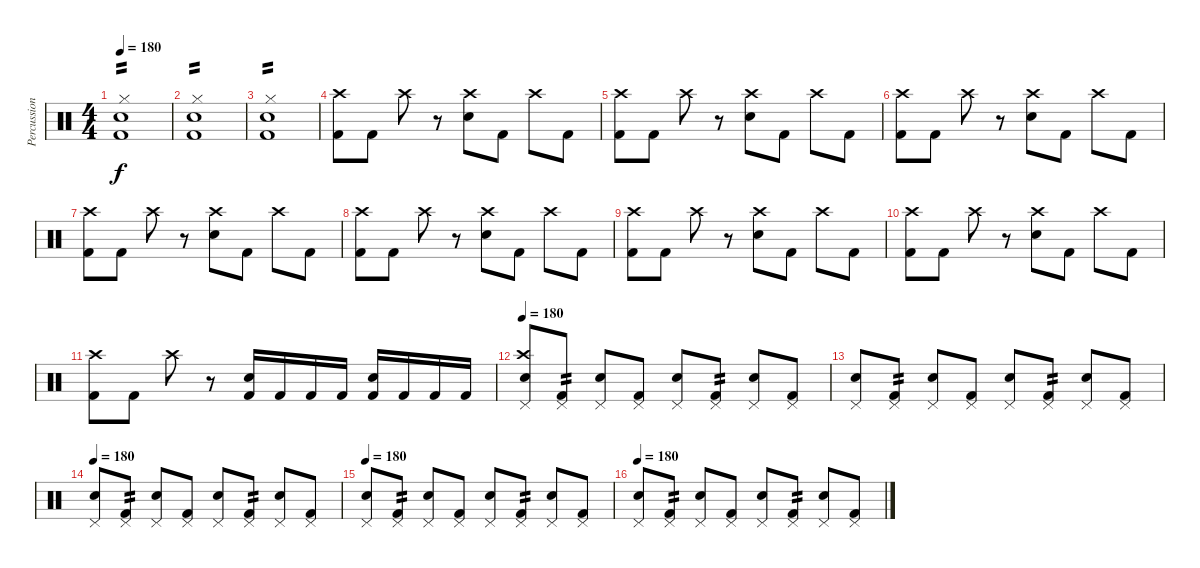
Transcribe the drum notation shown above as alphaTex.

\track ("Percussion" "Percussion") {instrument percussion}
\staff {score}
\articulation defaults
\ts (4 4)
\tempo 180
\clef neutral
\ks c
("Electric Snare (hit)" "Hi-Hat (closed)" "Kick (hit) 2").1{tp 2 dy f} |
("Electric Snare (hit)" "Hi-Hat (closed)" "Kick (hit) 2").1{tp 2} |
("Electric Snare (hit)" "Hi-Hat (closed)" "Kick (hit) 2").1{tp 2} |
("Crash high (hit)" "Kick (hit) 2").8 "Kick (hit) 2".8 "Crash high (hit)".8 r.8 ("Crash high (hit)" "Electric Snare (hit)").8 "Kick (hit) 2".8 "Crash high (hit)".8 "Kick (hit) 2".8 |
("Crash high (hit)" "Kick (hit) 2").8 "Kick (hit) 2".8 "Crash high (hit)".8 r.8 ("Crash high (hit)" "Electric Snare (hit)").8 "Kick (hit) 2".8 "Crash high (hit)".8 "Kick (hit) 2".8 |
("Crash high (hit)" "Kick (hit) 2").8 "Kick (hit) 2".8 "Crash high (hit)".8 r.8 ("Crash high (hit)" "Electric Snare (hit)").8 "Kick (hit) 2".8 "Crash high (hit)".8 "Kick (hit) 2".8 |
("Crash high (hit)" "Kick (hit) 2").8 "Kick (hit) 2".8 "Crash high (hit)".8 r.8 ("Crash high (hit)" "Electric Snare (hit)").8 "Kick (hit) 2".8 "Crash high (hit)".8 "Kick (hit) 2".8 |
("Crash high (hit)" "Kick (hit) 2").8 "Kick (hit) 2".8 "Crash high (hit)".8 r.8 ("Crash high (hit)" "Electric Snare (hit)").8 "Kick (hit) 2".8 "Crash high (hit)".8 "Kick (hit) 2".8 |
("Crash high (hit)" "Kick (hit) 2").8 "Kick (hit) 2".8 "Crash high (hit)".8 r.8 ("Crash high (hit)" "Electric Snare (hit)").8 "Kick (hit) 2".8 "Crash high (hit)".8 "Kick (hit) 2".8 |
("Crash high (hit)" "Kick (hit) 2").8 "Kick (hit) 2".8 "Crash high (hit)".8 r.8 ("Crash high (hit)" "Electric Snare (hit)").8 "Kick (hit) 2".8 "Crash high (hit)".8 "Kick (hit) 2".8 |
("Crash high (hit)" "Kick (hit) 2").8 "Kick (hit) 2".8 "Crash high (hit)".8 r.8 ("Electric Snare (hit)" "Kick (hit) 2").16 "Kick (hit) 2".16 "Kick (hit) 2".16 "Kick (hit) 2".16 ("Electric Snare (hit)" "Kick (hit) 2").16 "Kick (hit) 2".16 "Kick (hit) 2".16 "Kick (hit) 2".16 |
\tempo 180
("Pedal Hi-Hat (hit)" "Crash high (hit)" "Electric Snare (hit)").8 ("Pedal Hi-Hat (hit)" "Kick (hit) 2").8{tp 2} ("Pedal Hi-Hat (hit)" "Electric Snare (hit)").8 ("Pedal Hi-Hat (hit)" "Kick (hit) 2").8 ("Pedal Hi-Hat (hit)" "Electric Snare (hit)").8 ("Pedal Hi-Hat (hit)" "Kick (hit) 2").8{tp 2} ("Pedal Hi-Hat (hit)" "Electric Snare (hit)").8 ("Pedal Hi-Hat (hit)" "Kick (hit) 2").8 |
("Pedal Hi-Hat (hit)" "Electric Snare (hit)").8 ("Pedal Hi-Hat (hit)" "Kick (hit) 2").8{tp 2} ("Pedal Hi-Hat (hit)" "Electric Snare (hit)").8 ("Pedal Hi-Hat (hit)" "Kick (hit) 2").8 ("Pedal Hi-Hat (hit)" "Electric Snare (hit)").8 ("Pedal Hi-Hat (hit)" "Kick (hit) 2").8{tp 2} ("Pedal Hi-Hat (hit)" "Electric Snare (hit)").8 ("Pedal Hi-Hat (hit)" "Kick (hit) 2").8 |
\tempo 180
("Pedal Hi-Hat (hit)" "Electric Snare (hit)").8 ("Pedal Hi-Hat (hit)" "Kick (hit) 2").8{tp 2} ("Pedal Hi-Hat (hit)" "Electric Snare (hit)").8 ("Pedal Hi-Hat (hit)" "Kick (hit) 2").8 ("Pedal Hi-Hat (hit)" "Electric Snare (hit)").8 ("Pedal Hi-Hat (hit)" "Kick (hit) 2").8{tp 2} ("Pedal Hi-Hat (hit)" "Electric Snare (hit)").8 ("Pedal Hi-Hat (hit)" "Kick (hit) 2").8 |
\tempo 180
("Pedal Hi-Hat (hit)" "Electric Snare (hit)").8 ("Pedal Hi-Hat (hit)" "Kick (hit) 2").8{tp 2} ("Pedal Hi-Hat (hit)" "Electric Snare (hit)").8 ("Pedal Hi-Hat (hit)" "Kick (hit) 2").8 ("Pedal Hi-Hat (hit)" "Electric Snare (hit)").8 ("Pedal Hi-Hat (hit)" "Kick (hit) 2").8{tp 2} ("Pedal Hi-Hat (hit)" "Electric Snare (hit)").8 ("Pedal Hi-Hat (hit)" "Kick (hit) 2").8 |
\tempo 180
("Pedal Hi-Hat (hit)" "Electric Snare (hit)").8 ("Pedal Hi-Hat (hit)" "Kick (hit) 2").8{tp 2} ("Pedal Hi-Hat (hit)" "Electric Snare (hit)").8 ("Pedal Hi-Hat (hit)" "Kick (hit) 2").8 ("Pedal Hi-Hat (hit)" "Electric Snare (hit)").8 ("Pedal Hi-Hat (hit)" "Kick (hit) 2").8{tp 2} ("Pedal Hi-Hat (hit)" "Electric Snare (hit)").8 ("Pedal Hi-Hat (hit)" "Kick (hit) 2").8
